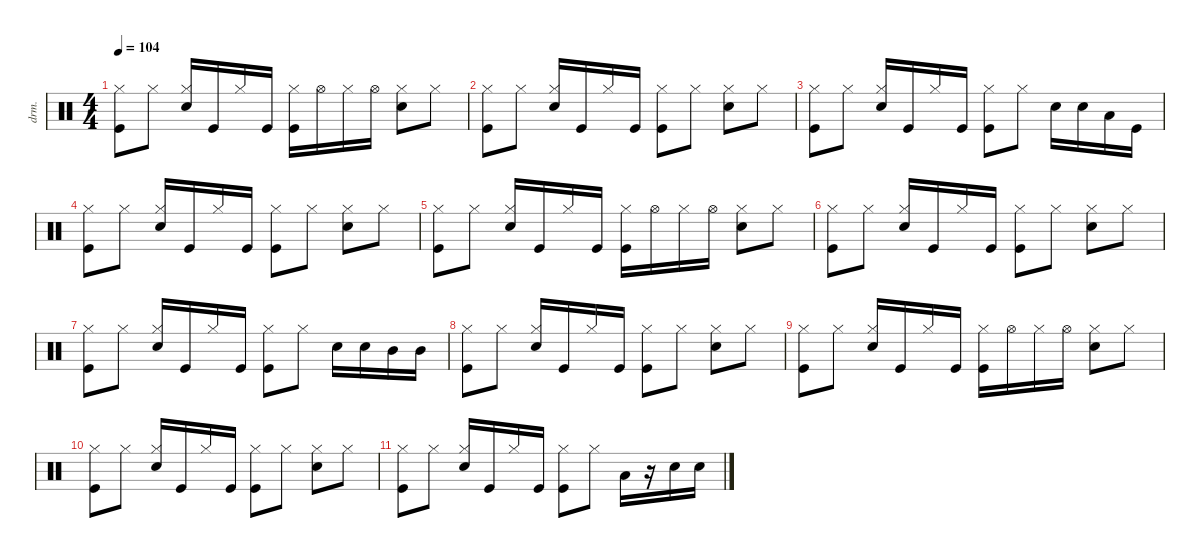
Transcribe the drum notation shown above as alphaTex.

\defaultSystemsLayout 4
\hideDynamics
\bracketExtendMode nobrackets
\otherSystemsTrackNameOrientation horizontal
\track ("Drumkit" "drm.") {instrument percussion}
\staff {score}
\articulation defaults
\ts (4 4)
\tempo 104
\clef neutral
\ks c
("Kick (hit)" "Hi-Hat (closed)").8{dy mf beam Down} "Hi-Hat (closed)".8{beam Down} ("Hi-Hat (closed)" "Snare (hit) 2").16{beam Up} "Kick (hit)".16{beam Up} "Hi-Hat (closed)".16{beam Up} "Kick (hit)".16{beam Up} ("Kick (hit)" "Hi-Hat (closed)").16{beam Down} "Hi-Hat (open)".16{beam Down} "Hi-Hat (closed)".16{beam Down} "Hi-Hat (open)".16{beam Down} ("Snare (hit) 2" "Hi-Hat (closed)").8{beam Down} "Hi-Hat (closed)".8{beam Down} |
("Kick (hit)" "Hi-Hat (closed)").8{beam Down} "Hi-Hat (closed)".8{beam Down} ("Hi-Hat (closed)" "Snare (hit) 2").16{beam Up} "Kick (hit)".16{beam Up} "Hi-Hat (closed)".16{beam Up} "Kick (hit)".16{beam Up} ("Hi-Hat (closed)" "Kick (hit)").8{beam Down} "Hi-Hat (closed)".8{beam Down} ("Hi-Hat (closed)" "Snare (hit) 2").8{beam Down} "Hi-Hat (closed)".8{beam Down} |
("Kick (hit)" "Hi-Hat (closed)").8{beam Down} "Hi-Hat (closed)".8{beam Down} ("Hi-Hat (closed)" "Snare (hit) 2").16{beam Up} "Kick (hit)".16{beam Up} "Hi-Hat (closed)".16{beam Up} "Kick (hit)".16{beam Up} ("Hi-Hat (closed)" "Kick (hit)").8{beam Down} "Hi-Hat (closed)".8{beam Down} "Snare (hit) 2".16{beam Down} "Snare (hit) 2".16{beam Down} "Low Tom (hit)".16{beam Down} "Kick (hit)".16{beam Down} |
("Kick (hit)" "Hi-Hat (closed)").8{beam Down} "Hi-Hat (closed)".8{beam Down} ("Hi-Hat (closed)" "Snare (hit) 2").16{beam Up} "Kick (hit)".16{beam Up} "Hi-Hat (closed)".16{beam Up} "Kick (hit)".16{beam Up} ("Hi-Hat (closed)" "Kick (hit)").8{beam Down} "Hi-Hat (closed)".8{beam Down} ("Hi-Hat (closed)" "Snare (hit) 2").8{beam Down} "Hi-Hat (closed)".8{beam Down} |
("Kick (hit)" "Hi-Hat (closed)").8{beam Down} "Hi-Hat (closed)".8{beam Down} ("Hi-Hat (closed)" "Snare (hit) 2").16{beam Up} "Kick (hit)".16{beam Up} "Hi-Hat (closed)".16{beam Up} "Kick (hit)".16{beam Up} ("Kick (hit)" "Hi-Hat (closed)").16{beam Down} "Hi-Hat (open)".16{beam Down} "Hi-Hat (closed)".16{beam Down} "Hi-Hat (open)".16{beam Down} ("Snare (hit) 2" "Hi-Hat (closed)").8{beam Down} "Hi-Hat (closed)".8{beam Down} |
("Kick (hit)" "Hi-Hat (closed)").8{beam Down} "Hi-Hat (closed)".8{beam Down} ("Hi-Hat (closed)" "Snare (hit) 2").16{beam Up} "Kick (hit)".16{beam Up} "Hi-Hat (closed)".16{beam Up} "Kick (hit)".16{beam Up} ("Hi-Hat (closed)" "Kick (hit)").8{beam Down} "Hi-Hat (closed)".8{beam Down} ("Hi-Hat (closed)" "Snare (hit) 2").8{beam Down} "Hi-Hat (closed)".8{beam Down} |
("Kick (hit)" "Hi-Hat (closed)").8{beam Down} "Hi-Hat (closed)".8{beam Down} ("Hi-Hat (closed)" "Snare (hit) 2").16{beam Up} "Kick (hit)".16{beam Up} "Hi-Hat (closed)".16{beam Up} "Kick (hit)".16{beam Up} ("Hi-Hat (closed)" "Kick (hit)").8{beam Down} "Hi-Hat (closed)".8{beam Down} "Snare (hit) 2".16{beam Down} "Snare (hit) 2".16{beam Down} "Mid Tom (hit)".16{beam Down} "Mid Tom (hit)".16{beam Down} |
("Kick (hit)" "Hi-Hat (closed)").8{beam Down} "Hi-Hat (closed)".8{beam Down} ("Hi-Hat (closed)" "Snare (hit) 2").16{beam Up} "Kick (hit)".16{beam Up} "Hi-Hat (closed)".16{beam Up} "Kick (hit)".16{beam Up} ("Hi-Hat (closed)" "Kick (hit)").8{beam Down} "Hi-Hat (closed)".8{beam Down} ("Hi-Hat (closed)" "Snare (hit) 2").8{beam Down} "Hi-Hat (closed)".8{beam Down} |
("Kick (hit)" "Hi-Hat (closed)").8{beam Down} "Hi-Hat (closed)".8{beam Down} ("Hi-Hat (closed)" "Snare (hit) 2").16{beam Up} "Kick (hit)".16{beam Up} "Hi-Hat (closed)".16{beam Up} "Kick (hit)".16{beam Up} ("Kick (hit)" "Hi-Hat (closed)").16{beam Down} "Hi-Hat (open)".16{beam Down} "Hi-Hat (closed)".16{beam Down} "Hi-Hat (open)".16{beam Down} ("Snare (hit) 2" "Hi-Hat (closed)").8{beam Down} "Hi-Hat (closed)".8{beam Down} |
("Kick (hit)" "Hi-Hat (closed)").8{beam Down} "Hi-Hat (closed)".8{beam Down} ("Hi-Hat (closed)" "Snare (hit) 2").16{beam Up} "Kick (hit)".16{beam Up} "Hi-Hat (closed)".16{beam Up} "Kick (hit)".16{beam Up} ("Hi-Hat (closed)" "Kick (hit)").8{beam Down} "Hi-Hat (closed)".8{beam Down} ("Hi-Hat (closed)" "Snare (hit) 2").8{beam Down} "Hi-Hat (closed)".8{beam Down} |
("Kick (hit)" "Hi-Hat (closed)").8{beam Down} "Hi-Hat (closed)".8{beam Down} ("Hi-Hat (closed)" "Snare (hit) 2").16{beam Up} "Kick (hit)".16{beam Up} "Hi-Hat (closed)".16{beam Up} "Kick (hit)".16{beam Up} ("Hi-Hat (closed)" "Kick (hit)").8{beam Down} "Hi-Hat (closed)".8{beam Down} "Low Tom (hit)".16{beam Down} r.16{beam Down} "Snare (hit) 2".16{beam Down} "Snare (hit) 2".16{beam Down}
